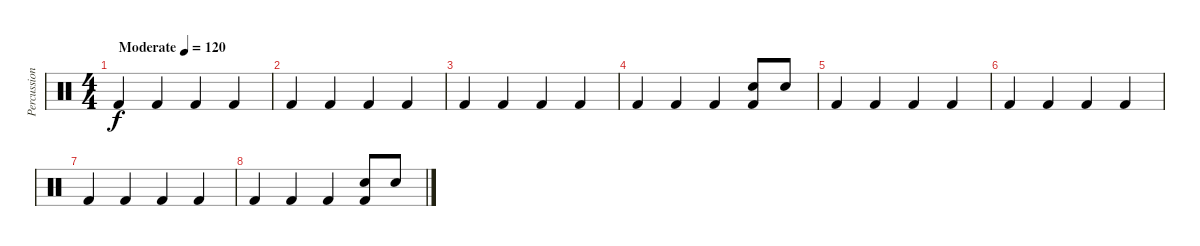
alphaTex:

\track ("Percussion" "Percussion") {instrument percussion}
\staff {score}
\articulation defaults
\ts (4 4)
\tempo (120 "Moderate")
\clef neutral
\ks c "Kick (hit) 2".4{dy f} "Kick (hit) 2".4 "Kick (hit) 2".4 "Kick (hit) 2".4
|
"Kick (hit) 2".4 "Kick (hit) 2".4 "Kick (hit) 2".4 "Kick (hit) 2".4 |
"Kick (hit) 2".4 "Kick (hit) 2".4 "Kick (hit) 2".4 "Kick (hit) 2".4 |
"Kick (hit) 2".4 "Kick (hit) 2".4 "Kick (hit) 2".4 ("Kick (hit) 2" "Snare (hit) 2").8 "Snare (hit) 2".8 |
"Kick (hit) 2".4 "Kick (hit) 2".4 "Kick (hit) 2".4 "Kick (hit) 2".4 |
"Kick (hit) 2".4 "Kick (hit) 2".4 "Kick (hit) 2".4 "Kick (hit) 2".4 |
"Kick (hit) 2".4 "Kick (hit) 2".4 "Kick (hit) 2".4 "Kick (hit) 2".4 |
"Kick (hit) 2".4 "Kick (hit) 2".4 "Kick (hit) 2".4 ("Kick (hit) 2" "Snare (hit) 2").8 "Snare (hit) 2".8
